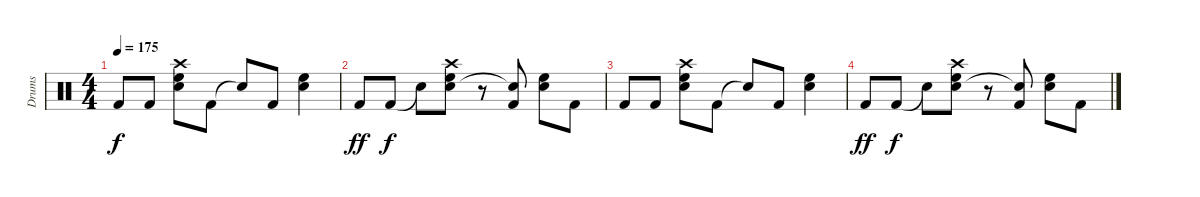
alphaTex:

\track ("Drums" "Drums") {instrument percussion}
\staff {score}
\articulation defaults
\ts (4 4)
\tempo 175
\clef neutral
\ks c "Kick (hit) 2".8{dy f} "Kick (hit) 2".8
("High Floor Tom (hit)" "Electric Snare (hit)" "Crash high (hit)").8 "Kick (hit) 2".8 "Snare (hit)"{t}.8 "Kick (hit) 2".8 ("High Floor Tom (hit)" "Electric Snare (hit)").4 |
"Kick (hit) 2".8{dy ff} "Kick (hit) 2".8{dy f} "Snare (hit)"{t}.8 ("High Floor Tom (hit)" "Electric Snare (hit)" "Crash high (hit)").8 r.8 ("Kick (hit) 2" "Snare (hit)"{t}).8 ("High Floor Tom (hit)" "Electric Snare (hit)").8 "Kick (hit) 2".8 |
"Kick (hit) 2".8 "Kick (hit) 2".8 ("High Floor Tom (hit)" "Electric Snare (hit)" "Crash high (hit)").8 "Kick (hit) 2".8 "Snare (hit)"{t}.8 "Kick (hit) 2".8 ("High Floor Tom (hit)" "Electric Snare (hit)").4 |
"Kick (hit) 2".8{dy ff} "Kick (hit) 2".8{dy f} "Snare (hit)"{t}.8 ("High Floor Tom (hit)" "Electric Snare (hit)" "Crash high (hit)").8 r.8 ("Kick (hit) 2" "Snare (hit)"{t}).8 ("High Floor Tom (hit)" "Electric Snare (hit)").8 "Kick (hit) 2".8
